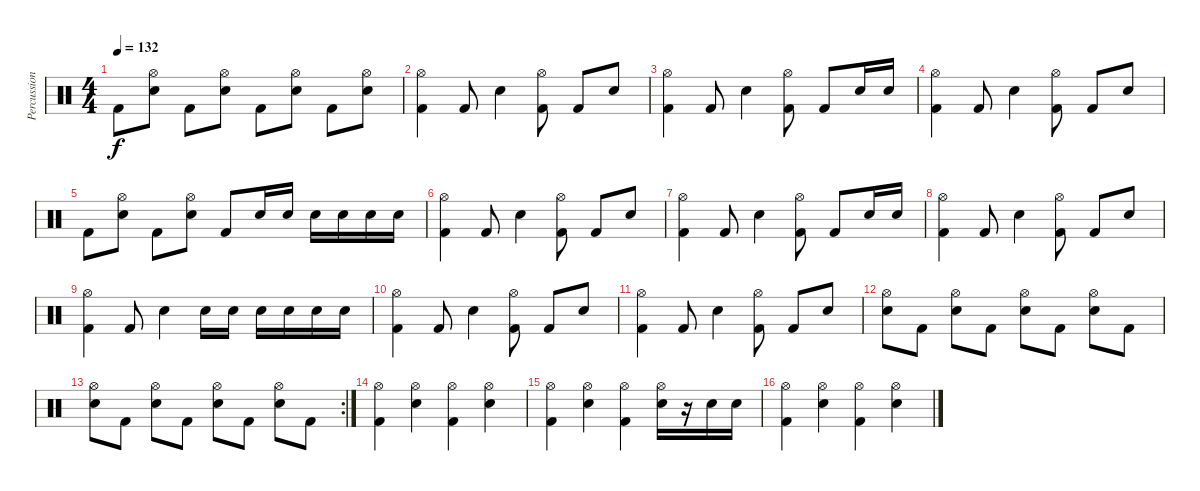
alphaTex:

\track ("Percussion" "Percussion") {instrument percussion}
\staff {score}
\articulation defaults
\ts (4 4)
\tempo 132
\clef neutral
\ks c "Kick (hit) 2".8{dy f}
("Snare (hit) 2" "Hi-Hat (open)").8 "Kick (hit) 2".8 ("Snare (hit) 2" "Hi-Hat (open)").8 "Kick (hit) 2".8 ("Snare (hit) 2" "Hi-Hat (open)").8 "Kick (hit) 2".8 ("Snare (hit) 2" "Hi-Hat (open)").8 |
("Kick (hit) 2" "Hi-Hat (open)").4 "Kick (hit) 2".8 "Snare (hit) 2".4 ("Kick (hit) 2" "Hi-Hat (open)").8 "Kick (hit) 2".8 "Snare (hit) 2".8 |
("Kick (hit) 2" "Hi-Hat (open)").4 "Kick (hit) 2".8 "Snare (hit) 2".4 ("Kick (hit) 2" "Hi-Hat (open)").8 "Kick (hit) 2".8 "Electric Snare (hit)".16 "Electric Snare (hit)".16 |
("Kick (hit) 2" "Hi-Hat (open)").4 "Kick (hit) 2".8 "Snare (hit) 2".4 ("Kick (hit) 2" "Hi-Hat (open)").8 "Kick (hit) 2".8 "Snare (hit) 2".8 |
"Kick (hit) 2".8 ("Snare (hit) 2" "Hi-Hat (open)").8 "Kick (hit) 2".8 ("Snare (hit) 2" "Hi-Hat (open)").8 "Kick (hit) 2".8 "Electric Snare (hit)".16 "Electric Snare (hit)".16 "Electric Snare (hit)".16 "Electric Snare (hit)".16 "Electric Snare (hit)".16 "Electric Snare (hit)".16 |
("Kick (hit) 2" "Hi-Hat (open)").4 "Kick (hit) 2".8 "Snare (hit) 2".4 ("Kick (hit) 2" "Hi-Hat (open)").8 "Kick (hit) 2".8 "Snare (hit) 2".8 |
("Kick (hit) 2" "Hi-Hat (open)").4 "Kick (hit) 2".8 "Snare (hit) 2".4 ("Kick (hit) 2" "Hi-Hat (open)").8 "Kick (hit) 2".8 "Electric Snare (hit)".16 "Electric Snare (hit)".16 |
("Kick (hit) 2" "Hi-Hat (open)").4 "Kick (hit) 2".8 "Snare (hit) 2".4 ("Kick (hit) 2" "Hi-Hat (open)").8 "Kick (hit) 2".8 "Snare (hit) 2".8 |
("Kick (hit) 2" "Hi-Hat (open)").4 "Kick (hit) 2".8 "Snare (hit) 2".4 "Electric Snare (hit)".16 "Electric Snare (hit)".16 "Electric Snare (hit)".16 "Electric Snare (hit)".16 "Electric Snare (hit)".16 "Electric Snare (hit)".16 |
("Kick (hit) 2" "Hi-Hat (open)").4 "Kick (hit) 2".8 "Snare (hit) 2".4 ("Kick (hit) 2" "Hi-Hat (open)").8 "Kick (hit) 2".8 "Snare (hit) 2".8 |
("Kick (hit) 2" "Hi-Hat (open)").4 "Kick (hit) 2".8 "Snare (hit) 2".4 ("Kick (hit) 2" "Hi-Hat (open)").8 "Kick (hit) 2".8 "Snare (hit) 2".8 |
("Snare (hit) 2" "Hi-Hat (open)").8 "Kick (hit) 2".8 ("Snare (hit) 2" "Hi-Hat (open)").8 "Kick (hit) 2".8 ("Snare (hit) 2" "Hi-Hat (open)").8 "Kick (hit) 2".8 ("Snare (hit) 2" "Hi-Hat (open)").8 "Kick (hit) 2".8 |
\rc 2
("Snare (hit) 2" "Hi-Hat (open)").8 "Kick (hit) 2".8 ("Snare (hit) 2" "Hi-Hat (open)").8 "Kick (hit) 2".8 ("Snare (hit) 2" "Hi-Hat (open)").8 "Kick (hit) 2".8 ("Snare (hit) 2" "Hi-Hat (open)").8 "Kick (hit) 2".8 |
("Kick (hit) 2" "Hi-Hat (open)").4 ("Hi-Hat (open)" "Snare (hit) 2").4 ("Kick (hit) 2" "Hi-Hat (open)").4 ("Hi-Hat (open)" "Snare (hit) 2").4 |
("Kick (hit) 2" "Hi-Hat (open)").4 ("Hi-Hat (open)" "Snare (hit) 2").4 ("Kick (hit) 2" "Hi-Hat (open)").4 ("Electric Snare (hit)" "Hi-Hat (open)").16 r.16 "Electric Snare (hit)".16 "Electric Snare (hit)".16 |
("Kick (hit) 2" "Hi-Hat (open)").4 ("Hi-Hat (open)" "Snare (hit) 2").4 ("Kick (hit) 2" "Hi-Hat (open)").4 ("Hi-Hat (open)" "Snare (hit) 2").4
